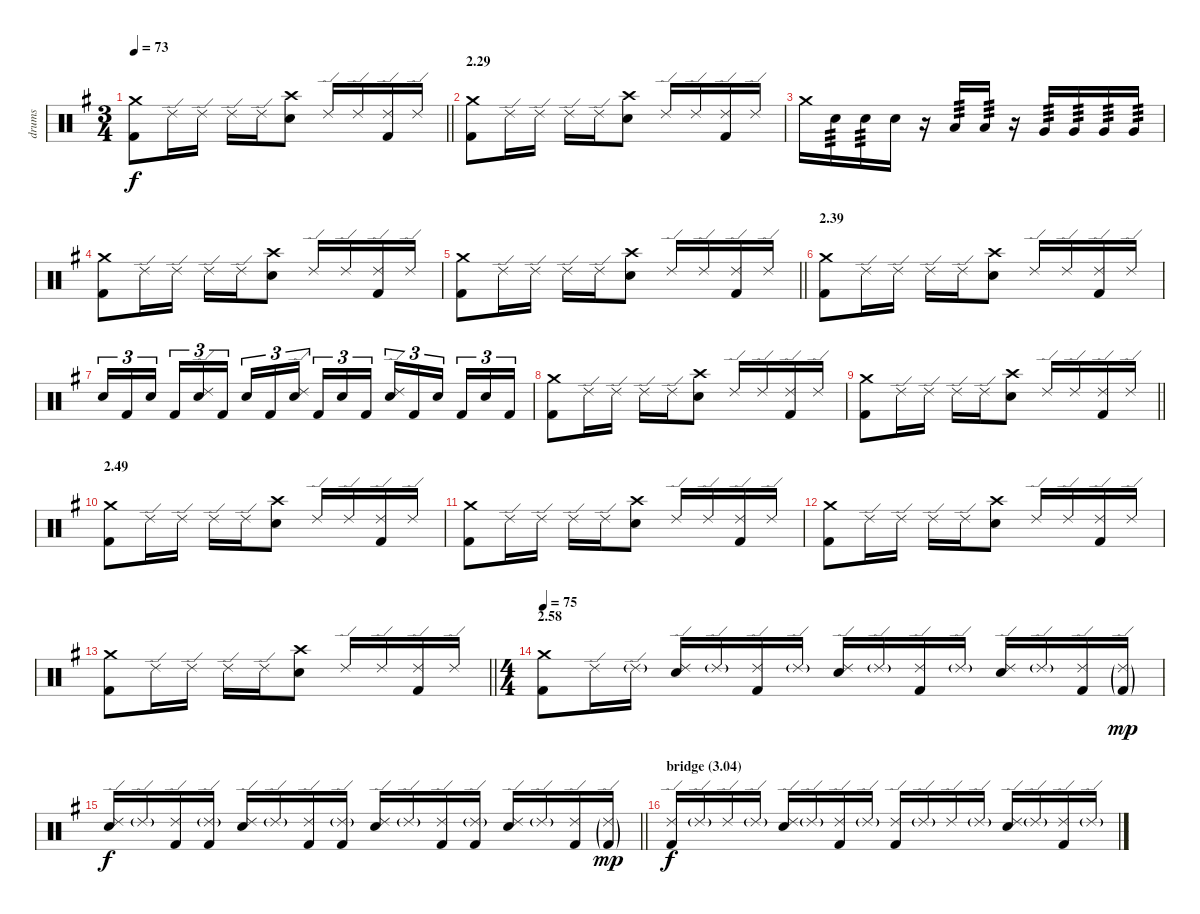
\track ("drums" "drums") {instrument percussion}
\staff {score}
\articulation defaults
\ts (3 4)
\tempo 73
\clef neutral
\barLineRight lightlight
\ks g
("Crash medium (hit)" "Kick (hit) 2").8{dy f} "Ride (edge) 2".16 "Ride (edge) 2".16 "Ride (edge) 2".16 "Ride (edge) 2".16 ("Crash high (hit)" "Electric Snare (hit)").8 "Ride (edge) 2".16 "Ride (edge) 2".16 ("Ride (edge) 2" "Kick (hit) 2").16 "Ride (edge) 2".16 |
\section ("" "2.29")
("Crash medium (hit)" "Kick (hit) 2").8 "Ride (edge) 2".16 "Ride (edge) 2".16 "Ride (edge) 2".16 "Ride (edge) 2".16 ("Crash high (hit)" "Electric Snare (hit)").8 "Ride (edge) 2".16 "Ride (edge) 2".16 ("Ride (edge) 2" "Kick (hit) 2").16 "Ride (edge) 2".16 |
"Crash medium (hit)".16 "Electric Snare (hit)".16{tp 3} "Electric Snare (hit)".16{tp 3} "Electric Snare (hit)".16 r.16 "Low Tom (hit)".16{tp 3} "Low Tom (hit)".16{tp 3} r.16 "Very Low Tom (hit)".16{tp 3} "Very Low Tom (hit)".16{tp 3} "Very Low Tom (hit)".16{tp 3} "Very Low Tom (hit)".16{tp 3} |
("Crash medium (hit)" "Kick (hit) 2").8 "Ride (edge) 2".16 "Ride (edge) 2".16 "Ride (edge) 2".16 "Ride (edge) 2".16 ("Crash high (hit)" "Electric Snare (hit)").8 "Ride (edge) 2".16 "Ride (edge) 2".16 ("Ride (edge) 2" "Kick (hit) 2").16 "Ride (edge) 2".16 |
\barLineRight lightlight
("Crash medium (hit)" "Kick (hit) 2").8 "Ride (edge) 2".16 "Ride (edge) 2".16 "Ride (edge) 2".16 "Ride (edge) 2".16 ("Crash high (hit)" "Electric Snare (hit)").8 "Ride (edge) 2".16 "Ride (edge) 2".16 ("Ride (edge) 2" "Kick (hit) 2").16 "Ride (edge) 2".16 |
\section ("" "2.39")
("Crash medium (hit)" "Kick (hit) 2").8 "Ride (edge) 2".16 "Ride (edge) 2".16 "Ride (edge) 2".16 "Ride (edge) 2".16 ("Crash high (hit)" "Electric Snare (hit)").8 "Ride (edge) 2".16 "Ride (edge) 2".16 ("Ride (edge) 2" "Kick (hit) 2").16 "Ride (edge) 2".16 |
"Electric Snare (hit)".16{tu (3 2)} "Kick (hit) 2".16{tu (3 2)} "Electric Snare (hit)".16{tu (3 2) beam splitsecondary} "Kick (hit) 2".16{tu (3 2)} ("Ride (edge) 2" "Electric Snare (hit)").16{tu (3 2)} "Kick (hit) 2".16{tu (3 2)} "Electric Snare (hit)".16{tu (3 2)} "Kick (hit) 2".16{tu (3 2)} ("Ride (edge) 2" "Electric Snare (hit)").16{tu (3 2) beam splitsecondary} "Kick (hit) 2".16{tu (3 2)} "Electric Snare (hit)".16{tu (3 2)} "Kick (hit) 2".16{tu (3 2)} ("Ride (edge) 2" "Electric Snare (hit)").16{tu (3 2)} "Kick (hit) 2".16{tu (3 2)} "Electric Snare (hit)".16{tu (3 2) beam splitsecondary} "Kick (hit) 2".16{tu (3 2)} "Electric Snare (hit)".16{tu (3 2)} "Kick (hit) 2".16{tu (3 2)} |
("Crash medium (hit)" "Kick (hit) 2").8 "Ride (edge) 2".16 "Ride (edge) 2".16 "Ride (edge) 2".16 "Ride (edge) 2".16 ("Crash high (hit)" "Electric Snare (hit)").8 "Ride (edge) 2".16 "Ride (edge) 2".16 ("Ride (edge) 2" "Kick (hit) 2").16 "Ride (edge) 2".16 |
\barLineRight lightlight
("Crash medium (hit)" "Kick (hit) 2").8 "Ride (edge) 2".16 "Ride (edge) 2".16 "Ride (edge) 2".16 "Ride (edge) 2".16 ("Crash high (hit)" "Electric Snare (hit)").8 "Ride (edge) 2".16 "Ride (edge) 2".16 ("Ride (edge) 2" "Kick (hit) 2").16 "Ride (edge) 2".16 |
\section ("" "2.49")
("Crash medium (hit)" "Kick (hit) 2").8 "Ride (edge) 2".16 "Ride (edge) 2".16 "Ride (edge) 2".16 "Ride (edge) 2".16 ("Crash high (hit)" "Electric Snare (hit)").8 "Ride (edge) 2".16 "Ride (edge) 2".16 ("Ride (edge) 2" "Kick (hit) 2").16 "Ride (edge) 2".16 |
("Crash medium (hit)" "Kick (hit) 2").8 "Ride (edge) 2".16 "Ride (edge) 2".16 "Ride (edge) 2".16 "Ride (edge) 2".16 ("Crash high (hit)" "Electric Snare (hit)").8 "Ride (edge) 2".16 "Ride (edge) 2".16 ("Ride (edge) 2" "Kick (hit) 2").16 "Ride (edge) 2".16 |
("Crash medium (hit)" "Kick (hit) 2").8 "Ride (edge) 2".16 "Ride (edge) 2".16 "Ride (edge) 2".16 "Ride (edge) 2".16 ("Crash high (hit)" "Electric Snare (hit)").8 "Ride (edge) 2".16 "Ride (edge) 2".16 ("Ride (edge) 2" "Kick (hit) 2").16 "Ride (edge) 2".16 |
\barLineRight lightlight
("Crash medium (hit)" "Kick (hit) 2").8 "Ride (edge) 2".16 "Ride (edge) 2".16 "Ride (edge) 2".16 "Ride (edge) 2".16 ("Crash high (hit)" "Electric Snare (hit)").8 "Ride (edge) 2".16 "Ride (edge) 2".16 ("Ride (edge) 2" "Kick (hit) 2").16 "Ride (edge) 2".16 |
\ts (4 4)
\section ("" "2.58")
\tempo 75
("Crash medium (hit)" "Kick (hit) 2").8 "Ride (edge) 2".16 "Ride (edge) 2"{g}.16 ("Ride (edge) 2" "Electric Snare (hit)").16 "Ride (edge) 2"{g}.16 ("Ride (edge) 2" "Kick (hit) 2").16 "Ride (edge) 2"{g}.16 ("Ride (edge) 2" "Electric Snare (hit)").16 "Ride (edge) 2"{g}.16 ("Ride (edge) 2" "Kick (hit) 2").16 "Ride (edge) 2"{g}.16 ("Ride (edge) 2" "Electric Snare (hit)").16 "Ride (edge) 2"{g}.16 ("Ride (edge) 2" "Kick (hit) 2").16 ("Ride (edge) 2"{g} "Kick (hit) 2"{g}).16{dy mp} |
\barLineRight lightlight
("Ride (edge) 2" "Electric Snare (hit)").16{dy f} "Ride (edge) 2"{g}.16 ("Ride (edge) 2" "Kick (hit) 2").16 ("Ride (edge) 2"{g} "Kick (hit) 2").16 ("Ride (edge) 2" "Electric Snare (hit)").16 "Ride (edge) 2"{g}.16 ("Ride (edge) 2" "Kick (hit) 2").16 ("Ride (edge) 2"{g} "Kick (hit) 2").16 ("Ride (edge) 2" "Electric Snare (hit)").16 "Ride (edge) 2"{g}.16 ("Ride (edge) 2" "Kick (hit) 2").16 ("Ride (edge) 2"{g} "Kick (hit) 2").16 ("Ride (edge) 2" "Electric Snare (hit)").16 "Ride (edge) 2"{g}.16 ("Ride (edge) 2" "Kick (hit) 2").16 ("Ride (edge) 2"{g} "Kick (hit) 2"{g}).16{dy mp} |
\section ("" "bridge (3.04)")
("Ride (edge) 2" "Kick (hit) 2").16{dy f} "Ride (edge) 2"{g}.16 "Ride (edge) 2".16 "Ride (edge) 2"{g}.16 ("Ride (edge) 2" "Electric Snare (hit)").16 "Ride (edge) 2"{g}.16 ("Ride (edge) 2" "Kick (hit) 2").16 "Ride (edge) 2"{g}.16 ("Ride (edge) 2" "Kick (hit) 2").16 "Ride (edge) 2"{g}.16 "Ride (edge) 2".16 "Ride (edge) 2"{g}.16 ("Ride (edge) 2" "Electric Snare (hit)").16 "Ride (edge) 2"{g}.16 ("Ride (edge) 2" "Kick (hit) 2").16 "Ride (edge) 2"{g}.16
